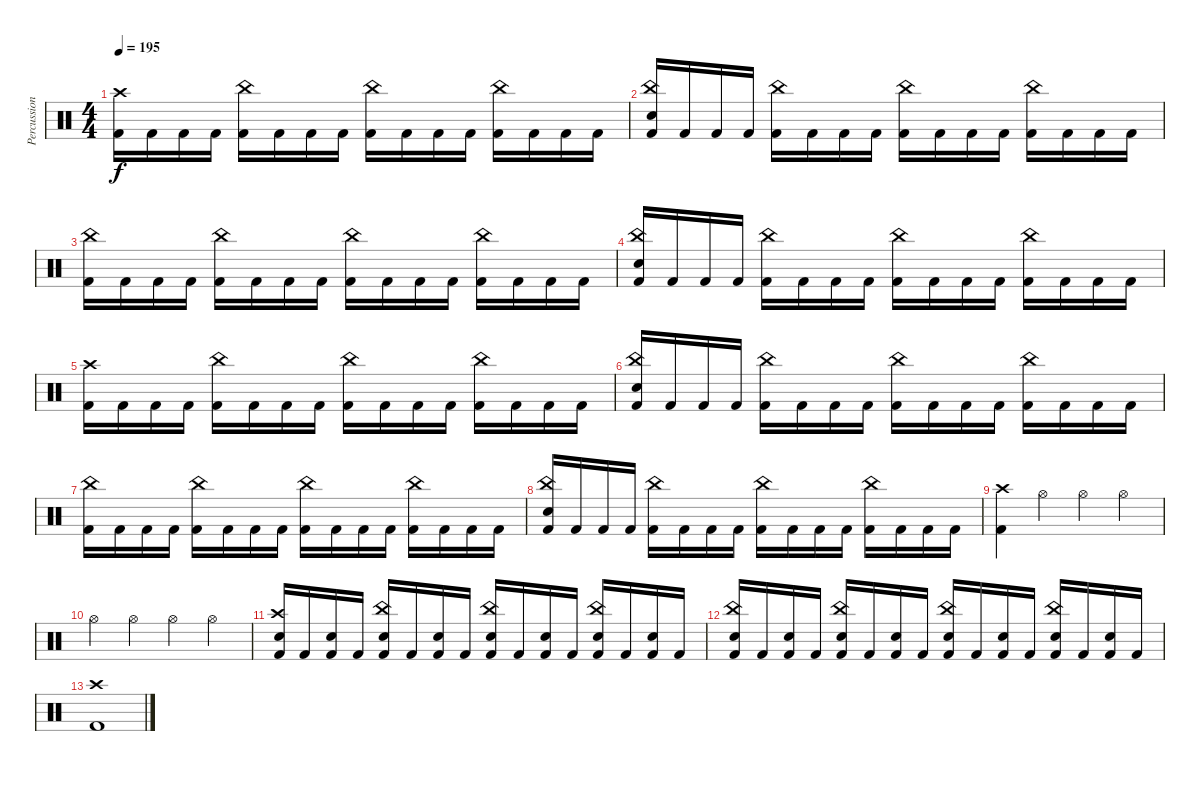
\track ("Percussion" "Percussion") {instrument percussion}
\staff {score}
\articulation defaults
\ts (4 4)
\tempo 195
\clef neutral
\ks c
("Kick (hit) 2" "Crash high (hit)").16{dy f} "Kick (hit) 2".16 "Kick (hit) 2".16 "Kick (hit) 2".16 ("Kick (hit) 2" "China (hit)").16 "Kick (hit) 2".16 "Kick (hit) 2".16 "Kick (hit) 2".16 ("Kick (hit) 2" "China (hit)").16 "Kick (hit) 2".16 "Kick (hit) 2".16 "Kick (hit) 2".16 ("Kick (hit) 2" "China (hit)").16 "Kick (hit) 2".16 "Kick (hit) 2".16 "Kick (hit) 2".16 |
("Kick (hit) 2" "China (hit)" "Snare (hit) 2").16 "Kick (hit) 2".16 "Kick (hit) 2".16 "Kick (hit) 2".16 ("Kick (hit) 2" "China (hit)").16 "Kick (hit) 2".16 "Kick (hit) 2".16 "Kick (hit) 2".16 ("Kick (hit) 2" "China (hit)").16 "Kick (hit) 2".16 "Kick (hit) 2".16 "Kick (hit) 2".16 ("Kick (hit) 2" "China (hit)").16 "Kick (hit) 2".16 "Kick (hit) 2".16 "Kick (hit) 2".16 |
("Kick (hit) 2" "China (hit)").16 "Kick (hit) 2".16 "Kick (hit) 2".16 "Kick (hit) 2".16 ("Kick (hit) 2" "China (hit)").16 "Kick (hit) 2".16 "Kick (hit) 2".16 "Kick (hit) 2".16 ("Kick (hit) 2" "China (hit)").16 "Kick (hit) 2".16 "Kick (hit) 2".16 "Kick (hit) 2".16 ("Kick (hit) 2" "China (hit)").16 "Kick (hit) 2".16 "Kick (hit) 2".16 "Kick (hit) 2".16 |
("Kick (hit) 2" "China (hit)" "Snare (hit) 2").16 "Kick (hit) 2".16 "Kick (hit) 2".16 "Kick (hit) 2".16 ("Kick (hit) 2" "China (hit)").16 "Kick (hit) 2".16 "Kick (hit) 2".16 "Kick (hit) 2".16 ("Kick (hit) 2" "China (hit)").16 "Kick (hit) 2".16 "Kick (hit) 2".16 "Kick (hit) 2".16 ("Kick (hit) 2" "China (hit)").16 "Kick (hit) 2".16 "Kick (hit) 2".16 "Kick (hit) 2".16 |
("Kick (hit) 2" "Crash high (hit)").16 "Kick (hit) 2".16 "Kick (hit) 2".16 "Kick (hit) 2".16 ("Kick (hit) 2" "China (hit)").16 "Kick (hit) 2".16 "Kick (hit) 2".16 "Kick (hit) 2".16 ("Kick (hit) 2" "China (hit)").16 "Kick (hit) 2".16 "Kick (hit) 2".16 "Kick (hit) 2".16 ("Kick (hit) 2" "China (hit)").16 "Kick (hit) 2".16 "Kick (hit) 2".16 "Kick (hit) 2".16 |
("Kick (hit) 2" "China (hit)" "Snare (hit) 2").16 "Kick (hit) 2".16 "Kick (hit) 2".16 "Kick (hit) 2".16 ("Kick (hit) 2" "China (hit)").16 "Kick (hit) 2".16 "Kick (hit) 2".16 "Kick (hit) 2".16 ("Kick (hit) 2" "China (hit)").16 "Kick (hit) 2".16 "Kick (hit) 2".16 "Kick (hit) 2".16 ("Kick (hit) 2" "China (hit)").16 "Kick (hit) 2".16 "Kick (hit) 2".16 "Kick (hit) 2".16 |
("Kick (hit) 2" "China (hit)").16 "Kick (hit) 2".16 "Kick (hit) 2".16 "Kick (hit) 2".16 ("Kick (hit) 2" "China (hit)").16 "Kick (hit) 2".16 "Kick (hit) 2".16 "Kick (hit) 2".16 ("Kick (hit) 2" "China (hit)").16 "Kick (hit) 2".16 "Kick (hit) 2".16 "Kick (hit) 2".16 ("Kick (hit) 2" "China (hit)").16 "Kick (hit) 2".16 "Kick (hit) 2".16 "Kick (hit) 2".16 |
("Kick (hit) 2" "China (hit)" "Snare (hit) 2").16 "Kick (hit) 2".16 "Kick (hit) 2".16 "Kick (hit) 2".16 ("Kick (hit) 2" "China (hit)").16 "Kick (hit) 2".16 "Kick (hit) 2".16 "Kick (hit) 2".16 ("Kick (hit) 2" "China (hit)").16 "Kick (hit) 2".16 "Kick (hit) 2".16 "Kick (hit) 2".16 ("Kick (hit) 2" "China (hit)").16 "Kick (hit) 2".16 "Kick (hit) 2".16 "Kick (hit) 2".16 |
("Crash high (hit)" "Kick (hit) 2").4 "Hi-Hat (open)".4 "Hi-Hat (open)".4 "Hi-Hat (open)".4 |
"Hi-Hat (open)".4 "Hi-Hat (open)".4 "Hi-Hat (open)".4 "Hi-Hat (open)".4 |
("Kick (hit) 2" "Crash high (hit)" "Snare (hit) 2").16 "Kick (hit) 2".16 ("Kick (hit) 2" "Snare (hit) 2").16 "Kick (hit) 2".16 ("Kick (hit) 2" "China (hit)" "Snare (hit) 2").16 "Kick (hit) 2".16 ("Kick (hit) 2" "Snare (hit) 2").16 "Kick (hit) 2".16 ("Kick (hit) 2" "China (hit)" "Snare (hit) 2").16 "Kick (hit) 2".16 ("Kick (hit) 2" "Snare (hit) 2").16 "Kick (hit) 2".16 ("Kick (hit) 2" "China (hit)" "Snare (hit) 2").16 "Kick (hit) 2".16 ("Kick (hit) 2" "Snare (hit) 2").16 "Kick (hit) 2".16 |
("Kick (hit) 2" "China (hit)" "Snare (hit) 2").16 "Kick (hit) 2".16 ("Kick (hit) 2" "Snare (hit) 2").16 "Kick (hit) 2".16 ("Kick (hit) 2" "China (hit)" "Snare (hit) 2").16 "Kick (hit) 2".16 ("Kick (hit) 2" "Snare (hit) 2").16 "Kick (hit) 2".16 ("Kick (hit) 2" "China (hit)" "Snare (hit) 2").16 "Kick (hit) 2".16 ("Kick (hit) 2" "Snare (hit) 2").16 "Kick (hit) 2".16 ("Kick (hit) 2" "China (hit)" "Snare (hit) 2").16 "Kick (hit) 2".16 ("Kick (hit) 2" "Snare (hit) 2").16 "Kick (hit) 2".16 |
("Crash high (hit)" "Kick (hit) 2").1
